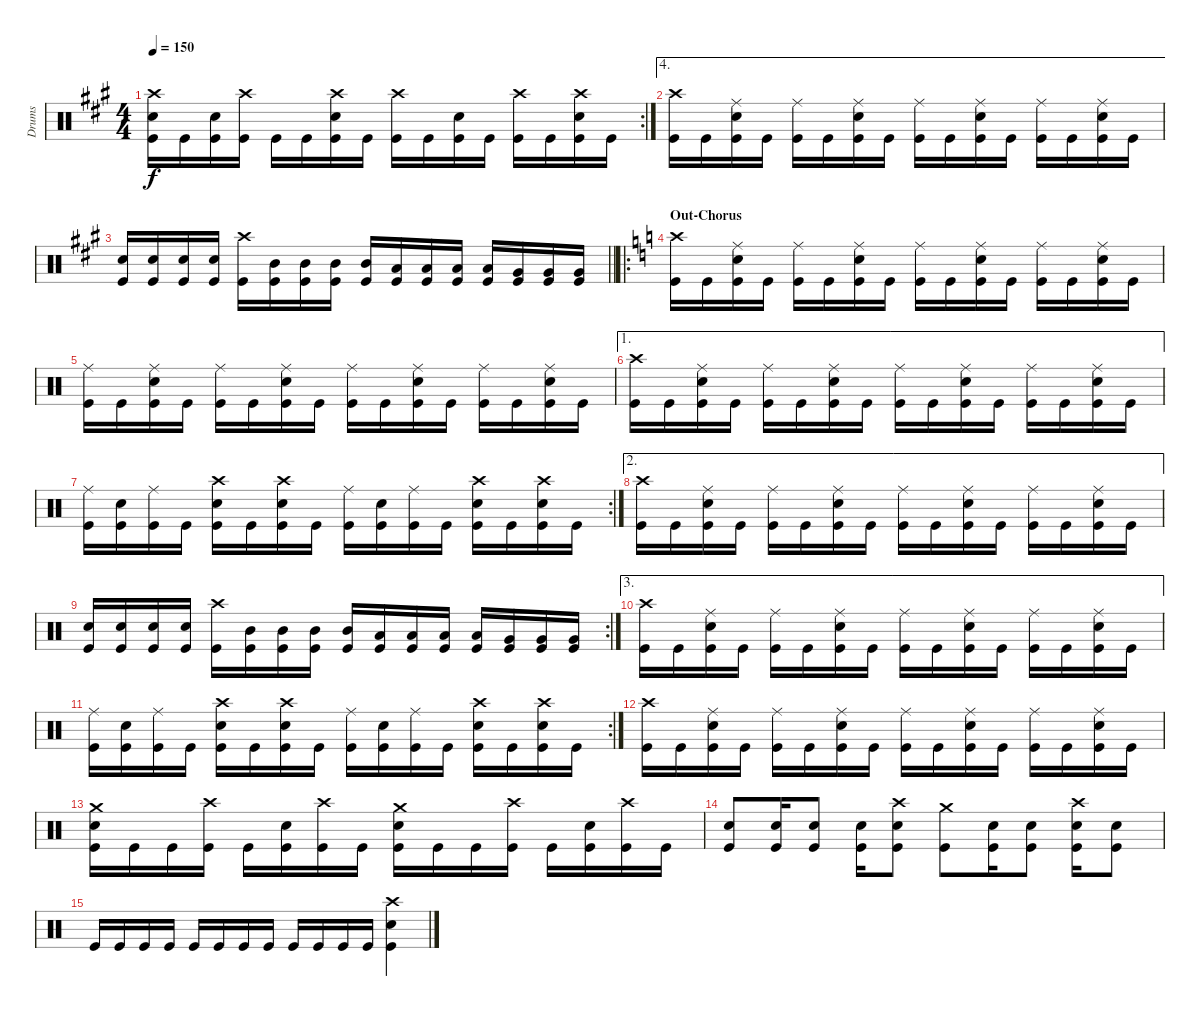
\track ("Drums" "Drums") {instrument percussion}
\staff {score}
\articulation defaults
\rc 2
\ts (4 4)
\tempo 150
\clef neutral
\ks f#minor
("Kick (hit)" "Snare (hit) 2" "Crash high (hit)").16{dy f} "Kick (hit)".16 ("Kick (hit)" "Snare (hit) 2").16 ("Kick (hit)" "Crash high (hit)").16 "Kick (hit)".16 "Kick (hit)".16 ("Kick (hit)" "Snare (hit) 2" "Crash high (hit)").16 "Kick (hit)".16 ("Kick (hit)" "Crash high (hit)").16 "Kick (hit)".16 ("Kick (hit)" "Snare (hit) 2").16 "Kick (hit)".16 ("Kick (hit)" "Crash high (hit)").16 "Kick (hit)".16 ("Kick (hit)" "Crash high (hit)" "Snare (hit) 2").16 "Kick (hit)".16 |
\ae 4
("Kick (hit)" "Crash high (hit)").16 "Kick (hit)".16 ("Kick (hit)" "Snare (hit) 2" "Ride (middle)").16 "Kick (hit)".16 ("Kick (hit)" "Ride (middle)").16 "Kick (hit)".16 ("Kick (hit)" "Snare (hit) 2" "Ride (middle)").16 "Kick (hit)".16 ("Kick (hit)" "Ride (middle)").16 "Kick (hit)".16 ("Kick (hit)" "Snare (hit) 2" "Ride (middle)").16 "Kick (hit)".16 ("Kick (hit)" "Ride (middle)").16 "Kick (hit)".16 ("Kick (hit)" "Snare (hit) 2" "Ride (middle)").16 "Kick (hit)".16 |
\barLineRight lightlight
("Kick (hit)" "Snare (hit) 2").16 ("Kick (hit)" "Snare (hit) 2").16 ("Kick (hit)" "Snare (hit) 2").16 ("Kick (hit)" "Snare (hit) 2").16 ("Kick (hit)" "Crash high (hit)").16 ("Kick (hit)" "Mid Tom (hit)").16 ("Kick (hit)" "Mid Tom (hit)").16 ("Kick (hit)" "Mid Tom (hit)").16 ("Kick (hit)" "Mid Tom (hit)").16 ("Kick (hit)" "Low Tom (hit)").16 ("Kick (hit)" "Low Tom (hit)").16 ("Kick (hit)" "Low Tom (hit)").16 ("Kick (hit)" "Low Tom (hit)").16 ("Kick (hit)" "Very Low Tom (hit)").16 ("Kick (hit)" "Very Low Tom (hit)").16 ("Kick (hit)" "Very Low Tom (hit)").16 |
\ro
\section ("" "Out-Chorus")
\ks aminor
("Kick (hit)" "Crash high (hit)").16 "Kick (hit)".16 ("Kick (hit)" "Snare (hit) 2" "Ride (middle)").16 "Kick (hit)".16 ("Kick (hit)" "Ride (middle)").16 "Kick (hit)".16 ("Kick (hit)" "Snare (hit) 2" "Ride (middle)").16 "Kick (hit)".16 ("Kick (hit)" "Ride (middle)").16 "Kick (hit)".16 ("Kick (hit)" "Snare (hit) 2" "Ride (middle)").16 "Kick (hit)".16 ("Kick (hit)" "Ride (middle)").16 "Kick (hit)".16 ("Kick (hit)" "Snare (hit) 2" "Ride (middle)").16 "Kick (hit)".16 |
("Kick (hit)" "Ride (middle)").16 "Kick (hit)".16 ("Kick (hit)" "Snare (hit) 2" "Ride (middle)").16 "Kick (hit)".16 ("Kick (hit)" "Ride (middle)").16 "Kick (hit)".16 ("Kick (hit)" "Snare (hit) 2" "Ride (middle)").16 "Kick (hit)".16 ("Kick (hit)" "Ride (middle)").16 "Kick (hit)".16 ("Kick (hit)" "Snare (hit) 2" "Ride (middle)").16 "Kick (hit)".16 ("Kick (hit)" "Ride (middle)").16 "Kick (hit)".16 ("Kick (hit)" "Snare (hit) 2" "Ride (middle)").16 "Kick (hit)".16 |
\ae 1
("Kick (hit)" "Crash high (hit)").16 "Kick (hit)".16 ("Kick (hit)" "Snare (hit) 2" "Ride (middle)").16 "Kick (hit)".16 ("Kick (hit)" "Ride (middle)").16 "Kick (hit)".16 ("Kick (hit)" "Snare (hit) 2" "Ride (middle)").16 "Kick (hit)".16 ("Kick (hit)" "Ride (middle)").16 "Kick (hit)".16 ("Kick (hit)" "Snare (hit) 2" "Ride (middle)").16 "Kick (hit)".16 ("Kick (hit)" "Ride (middle)").16 "Kick (hit)".16 ("Kick (hit)" "Snare (hit) 2" "Ride (middle)").16 "Kick (hit)".16 |
\rc 2
("Kick (hit)" "Ride (middle)").16 ("Kick (hit)" "Snare (hit) 2").16 ("Kick (hit)" "Ride (middle)").16 "Kick (hit)".16 ("Kick (hit)" "Crash high (hit)" "Snare (hit) 2").16 "Kick (hit)".16 ("Kick (hit)" "Snare (hit) 2" "Crash high (hit)").16 "Kick (hit)".16 ("Kick (hit)" "Ride (middle)").16 ("Kick (hit)" "Snare (hit) 2").16 ("Kick (hit)" "Ride (middle)").16 "Kick (hit)".16 ("Kick (hit)" "Snare (hit) 2" "Crash high (hit)").16 "Kick (hit)".16 ("Kick (hit)" "Snare (hit) 2" "Crash high (hit)").16 "Kick (hit)".16 |
\ae 2
("Kick (hit)" "Crash high (hit)").16 "Kick (hit)".16 ("Kick (hit)" "Snare (hit) 2" "Ride (middle)").16 "Kick (hit)".16 ("Kick (hit)" "Ride (middle)").16 "Kick (hit)".16 ("Kick (hit)" "Snare (hit) 2" "Ride (middle)").16 "Kick (hit)".16 ("Kick (hit)" "Ride (middle)").16 "Kick (hit)".16 ("Kick (hit)" "Snare (hit) 2" "Ride (middle)").16 "Kick (hit)".16 ("Kick (hit)" "Ride (middle)").16 "Kick (hit)".16 ("Kick (hit)" "Snare (hit) 2" "Ride (middle)").16 "Kick (hit)".16 |
\rc 2
("Kick (hit)" "Snare (hit) 2").16 ("Kick (hit)" "Snare (hit) 2").16 ("Kick (hit)" "Snare (hit) 2").16 ("Kick (hit)" "Snare (hit) 2").16 ("Kick (hit)" "Crash high (hit)").16 ("Kick (hit)" "Mid Tom (hit)").16 ("Kick (hit)" "Mid Tom (hit)").16 ("Kick (hit)" "Mid Tom (hit)").16 ("Kick (hit)" "Mid Tom (hit)").16 ("Kick (hit)" "Low Tom (hit)").16 ("Kick (hit)" "Low Tom (hit)").16 ("Kick (hit)" "Low Tom (hit)").16 ("Kick (hit)" "Low Tom (hit)").16 ("Kick (hit)" "Very Low Tom (hit)").16 ("Kick (hit)" "Very Low Tom (hit)").16 ("Kick (hit)" "Very Low Tom (hit)").16 |
\ae 3
("Kick (hit)" "Crash high (hit)").16 "Kick (hit)".16 ("Kick (hit)" "Snare (hit) 2" "Ride (middle)").16 "Kick (hit)".16 ("Kick (hit)" "Ride (middle)").16 "Kick (hit)".16 ("Kick (hit)" "Snare (hit) 2" "Ride (middle)").16 "Kick (hit)".16 ("Kick (hit)" "Ride (middle)").16 "Kick (hit)".16 ("Kick (hit)" "Snare (hit) 2" "Ride (middle)").16 "Kick (hit)".16 ("Kick (hit)" "Ride (middle)").16 "Kick (hit)".16 ("Kick (hit)" "Snare (hit) 2" "Ride (middle)").16 "Kick (hit)".16 |
\rc 2
("Kick (hit)" "Ride (middle)").16 ("Kick (hit)" "Snare (hit) 2").16 ("Kick (hit)" "Ride (middle)").16 "Kick (hit)".16 ("Kick (hit)" "Crash high (hit)" "Snare (hit) 2").16 "Kick (hit)".16 ("Kick (hit)" "Snare (hit) 2" "Crash high (hit)").16 "Kick (hit)".16 ("Kick (hit)" "Ride (middle)").16 ("Kick (hit)" "Snare (hit) 2").16 ("Kick (hit)" "Ride (middle)").16 "Kick (hit)".16 ("Kick (hit)" "Snare (hit) 2" "Crash high (hit)").16 "Kick (hit)".16 ("Kick (hit)" "Snare (hit) 2" "Crash high (hit)").16 "Kick (hit)".16 |
("Kick (hit)" "Crash high (hit)").16 "Kick (hit)".16 ("Kick (hit)" "Snare (hit) 2" "Ride (middle)").16 "Kick (hit)".16 ("Kick (hit)" "Ride (middle)").16 "Kick (hit)".16 ("Kick (hit)" "Snare (hit) 2" "Ride (middle)").16 "Kick (hit)".16 ("Kick (hit)" "Ride (middle)").16 "Kick (hit)".16 ("Kick (hit)" "Snare (hit) 2" "Ride (middle)").16 "Kick (hit)".16 ("Kick (hit)" "Ride (middle)").16 "Kick (hit)".16 ("Kick (hit)" "Snare (hit) 2" "Ride (middle)").16 "Kick (hit)".16 |
("Crash medium (hit)" "Snare (hit) 2" "Kick (hit)").16 "Kick (hit)".16 "Kick (hit)".16 ("Crash high (hit)" "Kick (hit)").16 "Kick (hit)".16 ("Kick (hit)" "Snare (hit) 2").16 ("Crash high (hit)" "Kick (hit)").16 "Kick (hit)".16 ("Crash medium (hit)" "Snare (hit) 2" "Kick (hit)").16 "Kick (hit)".16 "Kick (hit)".16 ("Crash high (hit)" "Kick (hit)").16 "Kick (hit)".16 ("Kick (hit)" "Snare (hit) 2").16 ("Crash high (hit)" "Kick (hit)").16 "Kick (hit)".16 |
("Snare (hit) 2" "Kick (hit)").8 ("Kick (hit)" "Snare (hit) 2").16 ("Kick (hit)" "Snare (hit) 2").8 ("Kick (hit)" "Snare (hit) 2").16 ("Crash high (hit)" "Snare (hit) 2" "Kick (hit)").8 ("Crash medium (hit)" "Kick (hit)").8 ("Kick (hit)" "Snare (hit) 2").16 ("Snare (hit) 2" "Kick (hit)").8 ("Snare (hit) 2" "Kick (hit)" "Crash high (hit)").16 ("Snare (hit) 2" "Kick (hit)").8 |
"Kick (hit)".16 "Kick (hit)".16 "Kick (hit)".16 "Kick (hit)".16 "Kick (hit)".16 "Kick (hit)".16 "Kick (hit)".16 "Kick (hit)".16 "Kick (hit)".16 "Kick (hit)".16 "Kick (hit)".16 "Kick (hit)".16 ("Kick (hit)" "Snare (hit) 2" "Crash high (hit)").4
